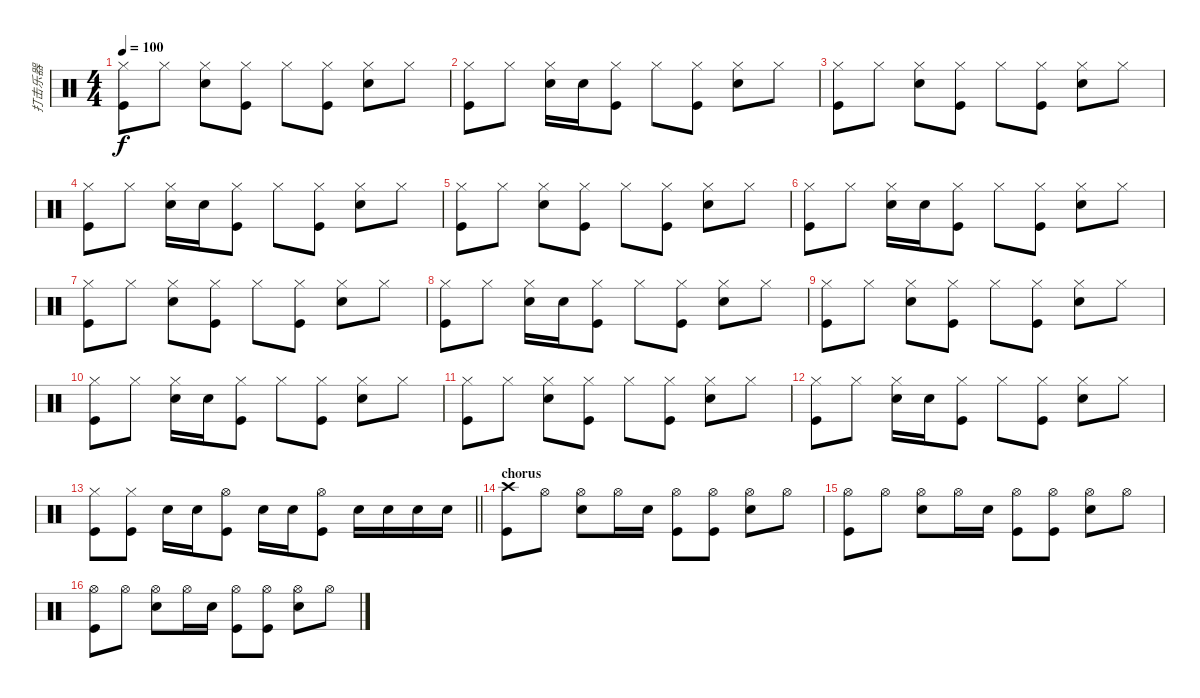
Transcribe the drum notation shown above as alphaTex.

\track ("打击乐器" "打击乐器") {instrument percussion}
\staff {score}
\articulation defaults
\ts (4 4)
\tempo 100
\clef neutral
\ks c
("Hi-Hat (closed)" "Kick (hit)").8{dy f} "Hi-Hat (closed)".8 ("Hi-Hat (closed)" "Electric Snare (hit)").8 ("Hi-Hat (closed)" "Kick (hit)").8 "Hi-Hat (closed)".8 ("Hi-Hat (closed)" "Kick (hit)").8 ("Hi-Hat (closed)" "Electric Snare (hit)").8 "Hi-Hat (closed)".8 |
("Hi-Hat (closed)" "Kick (hit)").8 "Hi-Hat (closed)".8 ("Hi-Hat (closed)" "Electric Snare (hit)").16 "Electric Snare (hit)".16 ("Hi-Hat (closed)" "Kick (hit)").8 "Hi-Hat (closed)".8 ("Hi-Hat (closed)" "Kick (hit)").8 ("Hi-Hat (closed)" "Electric Snare (hit)").8 "Hi-Hat (closed)".8 |
("Hi-Hat (closed)" "Kick (hit)").8 "Hi-Hat (closed)".8 ("Hi-Hat (closed)" "Electric Snare (hit)").8 ("Hi-Hat (closed)" "Kick (hit)").8 "Hi-Hat (closed)".8 ("Hi-Hat (closed)" "Kick (hit)").8 ("Hi-Hat (closed)" "Electric Snare (hit)").8 "Hi-Hat (closed)".8 |
("Hi-Hat (closed)" "Kick (hit)").8 "Hi-Hat (closed)".8 ("Hi-Hat (closed)" "Electric Snare (hit)").16 "Electric Snare (hit)".16 ("Hi-Hat (closed)" "Kick (hit)").8 "Hi-Hat (closed)".8 ("Hi-Hat (closed)" "Kick (hit)").8 ("Hi-Hat (closed)" "Electric Snare (hit)").8 "Hi-Hat (closed)".8 |
("Hi-Hat (closed)" "Kick (hit)").8 "Hi-Hat (closed)".8 ("Hi-Hat (closed)" "Electric Snare (hit)").8 ("Hi-Hat (closed)" "Kick (hit)").8 "Hi-Hat (closed)".8 ("Hi-Hat (closed)" "Kick (hit)").8 ("Hi-Hat (closed)" "Electric Snare (hit)").8 "Hi-Hat (closed)".8 |
("Hi-Hat (closed)" "Kick (hit)").8 "Hi-Hat (closed)".8 ("Hi-Hat (closed)" "Electric Snare (hit)").16 "Electric Snare (hit)".16 ("Hi-Hat (closed)" "Kick (hit)").8 "Hi-Hat (closed)".8 ("Hi-Hat (closed)" "Kick (hit)").8 ("Hi-Hat (closed)" "Electric Snare (hit)").8 "Hi-Hat (closed)".8 |
("Hi-Hat (closed)" "Kick (hit)").8 "Hi-Hat (closed)".8 ("Hi-Hat (closed)" "Electric Snare (hit)").8 ("Hi-Hat (closed)" "Kick (hit)").8 "Hi-Hat (closed)".8 ("Hi-Hat (closed)" "Kick (hit)").8 ("Hi-Hat (closed)" "Electric Snare (hit)").8 "Hi-Hat (closed)".8 |
("Hi-Hat (closed)" "Kick (hit)").8 "Hi-Hat (closed)".8 ("Hi-Hat (closed)" "Electric Snare (hit)").16 "Electric Snare (hit)".16 ("Hi-Hat (closed)" "Kick (hit)").8 "Hi-Hat (closed)".8 ("Hi-Hat (closed)" "Kick (hit)").8 ("Hi-Hat (closed)" "Electric Snare (hit)").8 "Hi-Hat (closed)".8 |
("Hi-Hat (closed)" "Kick (hit)").8 "Hi-Hat (closed)".8 ("Hi-Hat (closed)" "Electric Snare (hit)").8 ("Hi-Hat (closed)" "Kick (hit)").8 "Hi-Hat (closed)".8 ("Hi-Hat (closed)" "Kick (hit)").8 ("Hi-Hat (closed)" "Electric Snare (hit)").8 "Hi-Hat (closed)".8 |
("Hi-Hat (closed)" "Kick (hit)").8 "Hi-Hat (closed)".8 ("Hi-Hat (closed)" "Electric Snare (hit)").16 "Electric Snare (hit)".16 ("Hi-Hat (closed)" "Kick (hit)").8 "Hi-Hat (closed)".8 ("Hi-Hat (closed)" "Kick (hit)").8 ("Hi-Hat (closed)" "Electric Snare (hit)").8 "Hi-Hat (closed)".8 |
("Hi-Hat (closed)" "Kick (hit)").8 "Hi-Hat (closed)".8 ("Hi-Hat (closed)" "Electric Snare (hit)").8 ("Hi-Hat (closed)" "Kick (hit)").8 "Hi-Hat (closed)".8 ("Hi-Hat (closed)" "Kick (hit)").8 ("Hi-Hat (closed)" "Electric Snare (hit)").8 "Hi-Hat (closed)".8 |
("Hi-Hat (closed)" "Kick (hit)").8 "Hi-Hat (closed)".8 ("Hi-Hat (closed)" "Electric Snare (hit)").16 "Electric Snare (hit)".16 ("Hi-Hat (closed)" "Kick (hit)").8 "Hi-Hat (closed)".8 ("Hi-Hat (closed)" "Kick (hit)").8 ("Hi-Hat (closed)" "Electric Snare (hit)").8 "Hi-Hat (closed)".8 |
\barLineRight lightlight
("Hi-Hat (closed)" "Kick (hit)").8 ("Kick (hit)" "Hi-Hat (closed)").8 "Electric Snare (hit)".16 "Electric Snare (hit)".16 ("Hi-Hat (open)" "Kick (hit)").8 "Electric Snare (hit)".16 "Electric Snare (hit)".16 ("Hi-Hat (open)" "Kick (hit)").8 "Electric Snare (hit)".16 "Electric Snare (hit)".16 "Electric Snare (hit)".16 "Electric Snare (hit)".16 |
\section ("" "chorus")
("Crash high (hit)" "Kick (hit)").8 "Hi-Hat (open)".8 ("Hi-Hat (open)" "Electric Snare (hit)").8 "Hi-Hat (open)".16 "Electric Snare (hit)".16 ("Hi-Hat (open)" "Kick (hit)").8 ("Hi-Hat (open)" "Kick (hit)").8 ("Hi-Hat (open)" "Electric Snare (hit)").8 "Hi-Hat (open)".8 |
("Hi-Hat (open)" "Kick (hit)").8 "Hi-Hat (open)".8 ("Hi-Hat (open)" "Electric Snare (hit)").8 "Hi-Hat (open)".16 "Electric Snare (hit)".16 ("Hi-Hat (open)" "Kick (hit)").8 ("Hi-Hat (open)" "Kick (hit)").8 ("Hi-Hat (open)" "Electric Snare (hit)").8 "Hi-Hat (open)".8 |
("Hi-Hat (open)" "Kick (hit)").8 "Hi-Hat (open)".8 ("Hi-Hat (open)" "Electric Snare (hit)").8 "Hi-Hat (open)".16 "Electric Snare (hit)".16 ("Hi-Hat (open)" "Kick (hit)").8 ("Hi-Hat (open)" "Kick (hit)").8 ("Hi-Hat (open)" "Electric Snare (hit)").8 "Hi-Hat (open)".8
